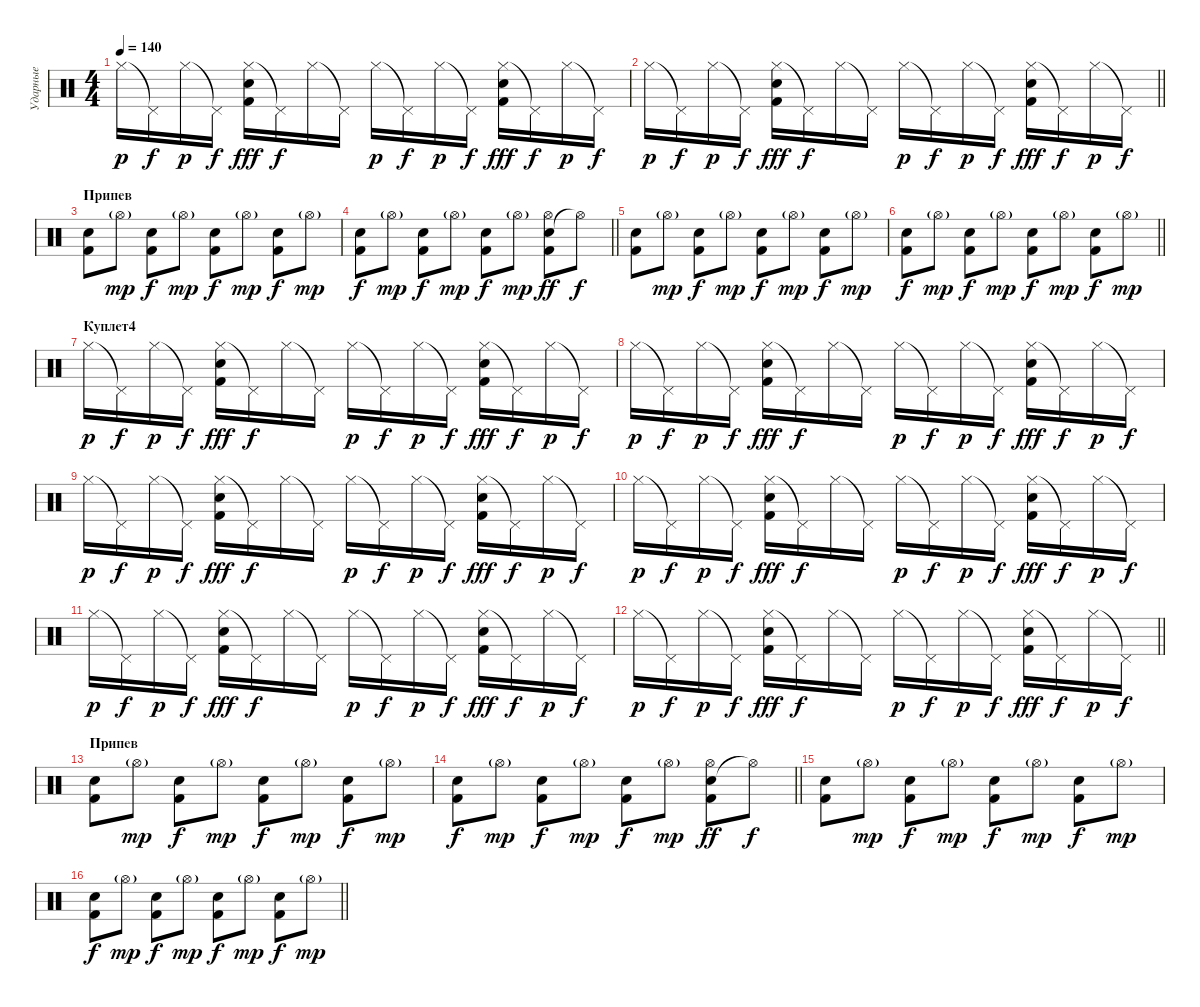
\track ("Ударные" "Ударные") {instrument percussion}
\staff {score}
\articulation defaults
\ts (4 4)
\tempo 140
\clef neutral
\ks c "Hi-Hat (closed)".16{dy p} "Pedal Hi-Hat (hit)"{t}.16{dy f} "Hi-Hat (closed)".16{dy p} "Pedal Hi-Hat (hit)"{t}.16{dy f}
("Hi-Hat (closed)" "Electric Snare (hit)" "Kick (hit) 2").16{dy fff} "Pedal Hi-Hat (hit)"{t}.16{dy f} "Hi-Hat (closed)".16 "Pedal Hi-Hat (hit)"{t}.16 "Hi-Hat (closed)".16{dy p} "Pedal Hi-Hat (hit)"{t}.16{dy f} "Hi-Hat (closed)".16{dy p} "Pedal Hi-Hat (hit)"{t}.16{dy f} ("Hi-Hat (closed)" "Electric Snare (hit)" "Kick (hit) 2").16{dy fff} "Pedal Hi-Hat (hit)"{t}.16{dy f} "Hi-Hat (closed)".16{dy p} "Pedal Hi-Hat (hit)"{t}.16{dy f} |
\barLineRight lightlight "Hi-Hat (closed)".16{dy p} "Pedal Hi-Hat (hit)"{t}.16{dy f} "Hi-Hat (closed)".16{dy p} "Pedal Hi-Hat (hit)"{t}.16{dy f}
("Hi-Hat (closed)" "Electric Snare (hit)" "Kick (hit) 2").16{dy fff} "Pedal Hi-Hat (hit)"{t}.16{dy f} "Hi-Hat (closed)".16 "Pedal Hi-Hat (hit)"{t}.16 "Hi-Hat (closed)".16{dy p} "Pedal Hi-Hat (hit)"{t}.16{dy f} "Hi-Hat (closed)".16{dy p} "Pedal Hi-Hat (hit)"{t}.16{dy f} ("Hi-Hat (closed)" "Electric Snare (hit)" "Kick (hit) 2").16{dy fff} "Pedal Hi-Hat (hit)"{t}.16{dy f} "Hi-Hat (closed)".16{dy p} "Pedal Hi-Hat (hit)"{t}.16{dy f} |
\section ("" "Припев")
("Snare (hit) 2" "Kick (hit) 2").8 "Hi-Hat (open)"{g}.8{dy mp} ("Snare (hit) 2" "Kick (hit) 2").8{dy f} "Hi-Hat (open)"{g}.8{dy mp} ("Snare (hit) 2" "Kick (hit) 2").8{dy f} "Hi-Hat (open)"{g}.8{dy mp} ("Snare (hit) 2" "Kick (hit) 2").8{dy f} "Hi-Hat (open)"{g}.8{dy mp} |
\barLineRight lightlight
("Snare (hit) 2" "Kick (hit) 2").8{dy f} "Hi-Hat (open)"{g}.8{dy mp} ("Snare (hit) 2" "Kick (hit) 2").8{dy f} "Hi-Hat (open)"{g}.8{dy mp} ("Snare (hit) 2" "Kick (hit) 2").8{dy f} "Hi-Hat (open)"{g}.8{dy mp} ("Snare (hit) 2" "Hi-Hat (open)" "Kick (hit) 2").8{dy ff} "Hi-Hat (open)"{t}.8{dy f} |
("Snare (hit) 2" "Kick (hit) 2").8 "Hi-Hat (open)"{g}.8{dy mp} ("Snare (hit) 2" "Kick (hit) 2").8{dy f} "Hi-Hat (open)"{g}.8{dy mp} ("Snare (hit) 2" "Kick (hit) 2").8{dy f} "Hi-Hat (open)"{g}.8{dy mp} ("Snare (hit) 2" "Kick (hit) 2").8{dy f} "Hi-Hat (open)"{g}.8{dy mp} |
\barLineRight lightlight
("Snare (hit) 2" "Kick (hit) 2").8{dy f} "Hi-Hat (open)"{g}.8{dy mp} ("Snare (hit) 2" "Kick (hit) 2").8{dy f} "Hi-Hat (open)"{g}.8{dy mp} ("Snare (hit) 2" "Kick (hit) 2").8{dy f} "Hi-Hat (open)"{g}.8{dy mp} ("Snare (hit) 2" "Kick (hit) 2").8{dy f} "Hi-Hat (open)"{g}.8{dy mp} |
\section ("" "Куплет4")
"Hi-Hat (closed)".16{dy p} "Pedal Hi-Hat (hit)"{t}.16{dy f} "Hi-Hat (closed)".16{dy p} "Pedal Hi-Hat (hit)"{t}.16{dy f} ("Hi-Hat (closed)" "Electric Snare (hit)" "Kick (hit) 2").16{dy fff} "Pedal Hi-Hat (hit)"{t}.16{dy f} "Hi-Hat (closed)".16 "Pedal Hi-Hat (hit)"{t}.16 "Hi-Hat (closed)".16{dy p} "Pedal Hi-Hat (hit)"{t}.16{dy f} "Hi-Hat (closed)".16{dy p} "Pedal Hi-Hat (hit)"{t}.16{dy f} ("Hi-Hat (closed)" "Electric Snare (hit)" "Kick (hit) 2").16{dy fff} "Pedal Hi-Hat (hit)"{t}.16{dy f} "Hi-Hat (closed)".16{dy p} "Pedal Hi-Hat (hit)"{t}.16{dy f} |
"Hi-Hat (closed)".16{dy p} "Pedal Hi-Hat (hit)"{t}.16{dy f} "Hi-Hat (closed)".16{dy p} "Pedal Hi-Hat (hit)"{t}.16{dy f} ("Hi-Hat (closed)" "Electric Snare (hit)" "Kick (hit) 2").16{dy fff} "Pedal Hi-Hat (hit)"{t}.16{dy f} "Hi-Hat (closed)".16 "Pedal Hi-Hat (hit)"{t}.16 "Hi-Hat (closed)".16{dy p} "Pedal Hi-Hat (hit)"{t}.16{dy f} "Hi-Hat (closed)".16{dy p} "Pedal Hi-Hat (hit)"{t}.16{dy f} ("Hi-Hat (closed)" "Electric Snare (hit)" "Kick (hit) 2").16{dy fff} "Pedal Hi-Hat (hit)"{t}.16{dy f} "Hi-Hat (closed)".16{dy p} "Pedal Hi-Hat (hit)"{t}.16{dy f} |
"Hi-Hat (closed)".16{dy p} "Pedal Hi-Hat (hit)"{t}.16{dy f} "Hi-Hat (closed)".16{dy p} "Pedal Hi-Hat (hit)"{t}.16{dy f} ("Hi-Hat (closed)" "Electric Snare (hit)" "Kick (hit) 2").16{dy fff} "Pedal Hi-Hat (hit)"{t}.16{dy f} "Hi-Hat (closed)".16 "Pedal Hi-Hat (hit)"{t}.16 "Hi-Hat (closed)".16{dy p} "Pedal Hi-Hat (hit)"{t}.16{dy f} "Hi-Hat (closed)".16{dy p} "Pedal Hi-Hat (hit)"{t}.16{dy f} ("Hi-Hat (closed)" "Electric Snare (hit)" "Kick (hit) 2").16{dy fff} "Pedal Hi-Hat (hit)"{t}.16{dy f} "Hi-Hat (closed)".16{dy p} "Pedal Hi-Hat (hit)"{t}.16{dy f} |
"Hi-Hat (closed)".16{dy p} "Pedal Hi-Hat (hit)"{t}.16{dy f} "Hi-Hat (closed)".16{dy p} "Pedal Hi-Hat (hit)"{t}.16{dy f} ("Hi-Hat (closed)" "Electric Snare (hit)" "Kick (hit) 2").16{dy fff} "Pedal Hi-Hat (hit)"{t}.16{dy f} "Hi-Hat (closed)".16 "Pedal Hi-Hat (hit)"{t}.16 "Hi-Hat (closed)".16{dy p} "Pedal Hi-Hat (hit)"{t}.16{dy f} "Hi-Hat (closed)".16{dy p} "Pedal Hi-Hat (hit)"{t}.16{dy f} ("Hi-Hat (closed)" "Electric Snare (hit)" "Kick (hit) 2").16{dy fff} "Pedal Hi-Hat (hit)"{t}.16{dy f} "Hi-Hat (closed)".16{dy p} "Pedal Hi-Hat (hit)"{t}.16{dy f} |
"Hi-Hat (closed)".16{dy p} "Pedal Hi-Hat (hit)"{t}.16{dy f} "Hi-Hat (closed)".16{dy p} "Pedal Hi-Hat (hit)"{t}.16{dy f} ("Hi-Hat (closed)" "Electric Snare (hit)" "Kick (hit) 2").16{dy fff} "Pedal Hi-Hat (hit)"{t}.16{dy f} "Hi-Hat (closed)".16 "Pedal Hi-Hat (hit)"{t}.16 "Hi-Hat (closed)".16{dy p} "Pedal Hi-Hat (hit)"{t}.16{dy f} "Hi-Hat (closed)".16{dy p} "Pedal Hi-Hat (hit)"{t}.16{dy f} ("Hi-Hat (closed)" "Electric Snare (hit)" "Kick (hit) 2").16{dy fff} "Pedal Hi-Hat (hit)"{t}.16{dy f} "Hi-Hat (closed)".16{dy p} "Pedal Hi-Hat (hit)"{t}.16{dy f} |
\barLineRight lightlight "Hi-Hat (closed)".16{dy p} "Pedal Hi-Hat (hit)"{t}.16{dy f} "Hi-Hat (closed)".16{dy p} "Pedal Hi-Hat (hit)"{t}.16{dy f}
("Hi-Hat (closed)" "Electric Snare (hit)" "Kick (hit) 2").16{dy fff} "Pedal Hi-Hat (hit)"{t}.16{dy f} "Hi-Hat (closed)".16 "Pedal Hi-Hat (hit)"{t}.16 "Hi-Hat (closed)".16{dy p} "Pedal Hi-Hat (hit)"{t}.16{dy f} "Hi-Hat (closed)".16{dy p} "Pedal Hi-Hat (hit)"{t}.16{dy f} ("Hi-Hat (closed)" "Electric Snare (hit)" "Kick (hit) 2").16{dy fff} "Pedal Hi-Hat (hit)"{t}.16{dy f} "Hi-Hat (closed)".16{dy p} "Pedal Hi-Hat (hit)"{t}.16{dy f} |
\section ("" "Припев")
("Snare (hit) 2" "Kick (hit) 2").8 "Hi-Hat (open)"{g}.8{dy mp} ("Snare (hit) 2" "Kick (hit) 2").8{dy f} "Hi-Hat (open)"{g}.8{dy mp} ("Snare (hit) 2" "Kick (hit) 2").8{dy f} "Hi-Hat (open)"{g}.8{dy mp} ("Snare (hit) 2" "Kick (hit) 2").8{dy f} "Hi-Hat (open)"{g}.8{dy mp} |
\barLineRight lightlight
("Snare (hit) 2" "Kick (hit) 2").8{dy f} "Hi-Hat (open)"{g}.8{dy mp} ("Snare (hit) 2" "Kick (hit) 2").8{dy f} "Hi-Hat (open)"{g}.8{dy mp} ("Snare (hit) 2" "Kick (hit) 2").8{dy f} "Hi-Hat (open)"{g}.8{dy mp} ("Snare (hit) 2" "Hi-Hat (open)" "Kick (hit) 2").8{dy ff} "Hi-Hat (open)"{t}.8{dy f} |
("Snare (hit) 2" "Kick (hit) 2").8 "Hi-Hat (open)"{g}.8{dy mp} ("Snare (hit) 2" "Kick (hit) 2").8{dy f} "Hi-Hat (open)"{g}.8{dy mp} ("Snare (hit) 2" "Kick (hit) 2").8{dy f} "Hi-Hat (open)"{g}.8{dy mp} ("Snare (hit) 2" "Kick (hit) 2").8{dy f} "Hi-Hat (open)"{g}.8{dy mp} |
\barLineRight lightlight
("Snare (hit) 2" "Kick (hit) 2").8{dy f} "Hi-Hat (open)"{g}.8{dy mp} ("Snare (hit) 2" "Kick (hit) 2").8{dy f} "Hi-Hat (open)"{g}.8{dy mp} ("Snare (hit) 2" "Kick (hit) 2").8{dy f} "Hi-Hat (open)"{g}.8{dy mp} ("Snare (hit) 2" "Kick (hit) 2").8{dy f} "Hi-Hat (open)"{g}.8{dy mp}
